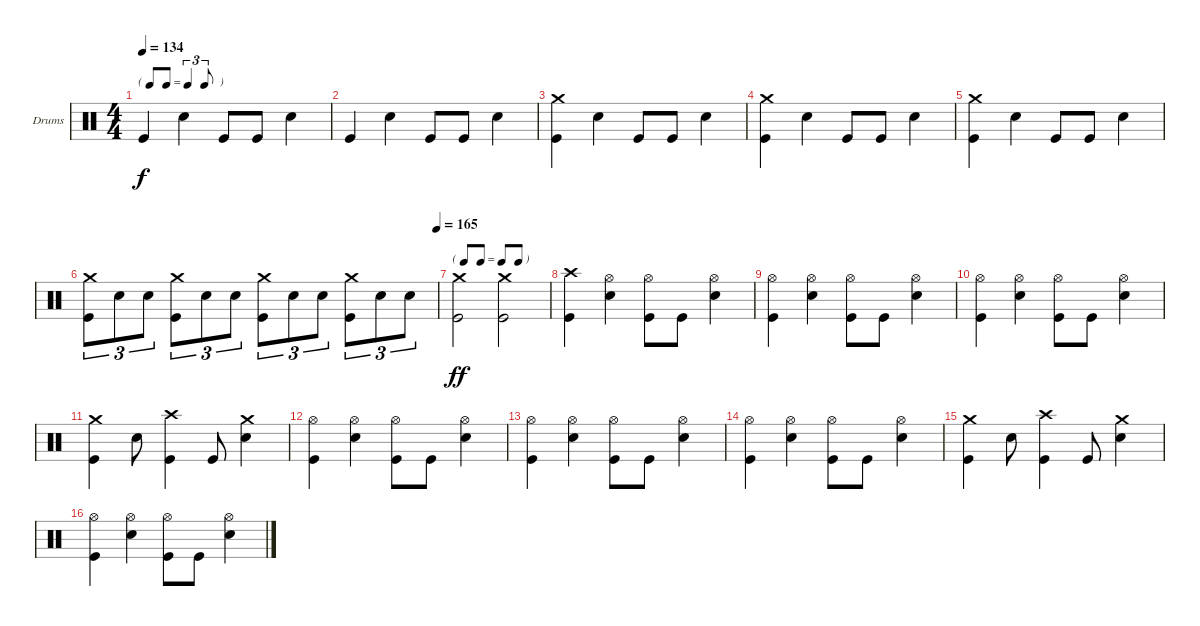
\bracketExtendMode groupsimilarinstruments
\firstSystemTrackNameOrientation horizontal
\otherSystemsTrackNameOrientation horizontal
\track ("Drumkit" "Drums") {instrument percussion}
\staff {score}
\articulation defaults
\ts (4 4)
\tf triplet8th
\tempo 134
\clef neutral
\ks c "Kick (hit)".4{dy f} "Snare (hit) 2".4 "Kick (hit)".8 "Kick (hit)".8 "Snare (hit) 2".4
|
"Kick (hit)".4 "Snare (hit) 2".4 "Kick (hit)".8 "Kick (hit)".8 "Snare (hit) 2".4 |
("Kick (hit)" "Crash medium (hit)").4 "Snare (hit) 2".4 "Kick (hit)".8 "Kick (hit)".8 "Snare (hit) 2".4 |
("Kick (hit)" "Crash medium (hit)").4 "Snare (hit) 2".4 "Kick (hit)".8 "Kick (hit)".8 "Snare (hit) 2".4 |
("Kick (hit)" "Crash medium (hit)").4 "Snare (hit) 2".4 "Kick (hit)".8 "Kick (hit)".8 "Snare (hit) 2".4 |
\tempo (165 1)
("Kick (hit)" "Crash medium (hit)").8{tu (3 2)} "Snare (hit) 2".8{tu (3 2)} "Snare (hit) 2".8{tu (3 2)} ("Kick (hit)" "Crash medium (hit)").8{tu (3 2)} "Snare (hit) 2".8{tu (3 2)} "Snare (hit) 2".8{tu (3 2)} ("Kick (hit)" "Crash medium (hit)").8{tu (3 2)} "Snare (hit) 2".8{tu (3 2)} "Snare (hit) 2".8{tu (3 2)} ("Kick (hit)" "Crash medium (hit)").8{tu (3 2)} "Snare (hit) 2".8{tu (3 2)} "Snare (hit) 2".8{tu (3 2)} |
\tf none
("Crash medium (hit)" "Kick (hit)").2{dy ff} ("Crash medium (hit)" "Kick (hit)").2 |
("Kick (hit)" "Crash high (hit)").4 ("Snare (hit) 2" "Hi-Hat (open)").4 ("Kick (hit)" "Hi-Hat (open)").8 "Kick (hit)".8 ("Hi-Hat (open)" "Snare (hit) 2").4 |
("Hi-Hat (open)" "Kick (hit)").4 ("Snare (hit) 2" "Hi-Hat (open)").4 ("Kick (hit)" "Hi-Hat (open)").8 "Kick (hit)".8 ("Snare (hit) 2" "Hi-Hat (open)").4 |
("Hi-Hat (open)" "Kick (hit)").4 ("Hi-Hat (open)" "Snare (hit) 2").4 ("Hi-Hat (open)" "Kick (hit)").8 "Kick (hit)".8 ("Snare (hit) 2" "Hi-Hat (open)").4 |
("Crash medium (hit)" "Kick (hit)").4 "Snare (hit) 2".8 ("Kick (hit)" "Crash high (hit)").4 "Kick (hit)".8 ("Crash medium (hit)" "Snare (hit) 2").4 |
("Hi-Hat (open)" "Kick (hit)").4 ("Snare (hit) 2" "Hi-Hat (open)").4 ("Kick (hit)" "Hi-Hat (open)").8 "Kick (hit)".8 ("Snare (hit) 2" "Hi-Hat (open)").4 |
("Hi-Hat (open)" "Kick (hit)").4 ("Hi-Hat (open)" "Snare (hit) 2").4 ("Hi-Hat (open)" "Kick (hit)").8 "Kick (hit)".8 ("Snare (hit) 2" "Hi-Hat (open)").4 |
("Hi-Hat (open)" "Kick (hit)").4 ("Hi-Hat (open)" "Snare (hit) 2").4 ("Hi-Hat (open)" "Kick (hit)").8 "Kick (hit)".8 ("Snare (hit) 2" "Hi-Hat (open)").4 |
("Crash medium (hit)" "Kick (hit)").4 "Snare (hit) 2".8 ("Kick (hit)" "Crash high (hit)").4 "Kick (hit)".8 ("Crash medium (hit)" "Snare (hit) 2").4 |
("Hi-Hat (open)" "Kick (hit)").4 ("Snare (hit) 2" "Hi-Hat (open)").4 ("Kick (hit)" "Hi-Hat (open)").8 "Kick (hit)".8 ("Snare (hit) 2" "Hi-Hat (open)").4
